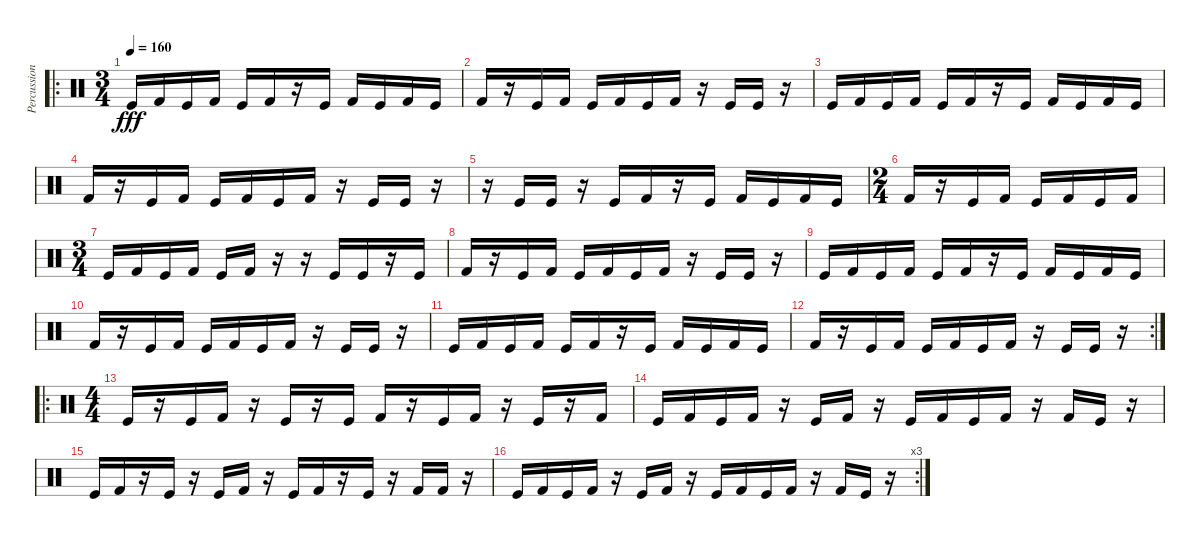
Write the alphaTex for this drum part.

\track ("Percussion" "Percussion") {instrument percussion}
\staff {score}
\articulation defaults
\ro
\ts (3 4)
\tempo 160
\clef neutral
\ks c "Kick (hit)".16{dy fff} "Kick (hit) 2".16 "Kick (hit)".16 "Kick (hit) 2".16 "Kick (hit)".16 "Kick (hit) 2".16
r.16 "Kick (hit)".16 "Kick (hit) 2".16 "Kick (hit)".16 "Kick (hit) 2".16 "Kick (hit)".16 |
"Kick (hit) 2".16 r.16 "Kick (hit)".16 "Kick (hit) 2".16 "Kick (hit)".16 "Kick (hit) 2".16 "Kick (hit)".16 "Kick (hit) 2".16 r.16 "Kick (hit)".16 "Kick (hit)".16 r.16 |
"Kick (hit)".16 "Kick (hit) 2".16 "Kick (hit)".16 "Kick (hit) 2".16 "Kick (hit)".16 "Kick (hit) 2".16 r.16 "Kick (hit)".16 "Kick (hit) 2".16 "Kick (hit)".16 "Kick (hit) 2".16 "Kick (hit)".16 |
"Kick (hit) 2".16 r.16 "Kick (hit)".16 "Kick (hit) 2".16 "Kick (hit)".16 "Kick (hit) 2".16 "Kick (hit)".16 "Kick (hit) 2".16 r.16 "Kick (hit)".16 "Kick (hit)".16 r.16 |
r.16 "Kick (hit)".16 "Kick (hit)".16 r.16 "Kick (hit)".16 "Kick (hit) 2".16 r.16 "Kick (hit)".16 "Kick (hit) 2".16 "Kick (hit)".16 "Kick (hit) 2".16 "Kick (hit)".16 |
\ts (2 4)
"Kick (hit) 2".16 r.16 "Kick (hit)".16 "Kick (hit) 2".16 "Kick (hit)".16 "Kick (hit) 2".16 "Kick (hit)".16 "Kick (hit) 2".16 |
\ts (3 4)
"Kick (hit)".16 "Kick (hit) 2".16 "Kick (hit)".16 "Kick (hit) 2".16 "Kick (hit)".16 "Kick (hit) 2".16 r.16 r.16 "Kick (hit)".16 "Kick (hit)".16 r.16 "Kick (hit)".16 |
"Kick (hit) 2".16 r.16 "Kick (hit)".16 "Kick (hit) 2".16 "Kick (hit)".16 "Kick (hit) 2".16 "Kick (hit)".16 "Kick (hit) 2".16 r.16 "Kick (hit)".16 "Kick (hit)".16 r.16 |
"Kick (hit)".16 "Kick (hit) 2".16 "Kick (hit)".16 "Kick (hit) 2".16 "Kick (hit)".16 "Kick (hit) 2".16 r.16 "Kick (hit)".16 "Kick (hit) 2".16 "Kick (hit)".16 "Kick (hit) 2".16 "Kick (hit)".16 |
"Kick (hit) 2".16 r.16 "Kick (hit)".16 "Kick (hit) 2".16 "Kick (hit)".16 "Kick (hit) 2".16 "Kick (hit)".16 "Kick (hit) 2".16 r.16 "Kick (hit)".16 "Kick (hit)".16 r.16 |
"Kick (hit)".16 "Kick (hit) 2".16 "Kick (hit)".16 "Kick (hit) 2".16 "Kick (hit)".16 "Kick (hit) 2".16 r.16 "Kick (hit)".16 "Kick (hit) 2".16 "Kick (hit)".16 "Kick (hit) 2".16 "Kick (hit)".16 |
\rc 2 "Kick (hit) 2".16
r.16 "Kick (hit)".16 "Kick (hit) 2".16 "Kick (hit)".16 "Kick (hit) 2".16 "Kick (hit)".16 "Kick (hit) 2".16 r.16 "Kick (hit)".16 "Kick (hit)".16 r.16 |
\ro
\ts (4 4)
"Kick (hit)".16 r.16 "Kick (hit)".16 "Kick (hit) 2".16 r.16 "Kick (hit)".16 r.16 "Kick (hit)".16 "Kick (hit) 2".16 r.16 "Kick (hit)".16 "Kick (hit) 2".16 r.16 "Kick (hit)".16 r.16 "Kick (hit) 2".16 |
"Kick (hit)".16 "Kick (hit) 2".16 "Kick (hit)".16 "Kick (hit) 2".16 r.16 "Kick (hit)".16 "Kick (hit) 2".16 r.16 "Kick (hit)".16 "Kick (hit) 2".16 "Kick (hit)".16 "Kick (hit) 2".16 r.16 "Kick (hit) 2".16 "Kick (hit)".16 r.16 |
"Kick (hit)".16 "Kick (hit) 2".16 r.16 "Kick (hit)".16 r.16 "Kick (hit)".16 "Kick (hit) 2".16 r.16 "Kick (hit)".16 "Kick (hit) 2".16 r.16 "Kick (hit)".16 r.16 "Kick (hit) 2".16 "Kick (hit) 2".16 r.16 |
\rc 3 "Kick (hit)".16 "Kick (hit) 2".16 "Kick (hit)".16 "Kick (hit) 2".16
r.16 "Kick (hit)".16 "Kick (hit) 2".16 r.16 "Kick (hit)".16 "Kick (hit) 2".16 "Kick (hit)".16 "Kick (hit) 2".16 r.16 "Kick (hit) 2".16 "Kick (hit)".16 r.16
